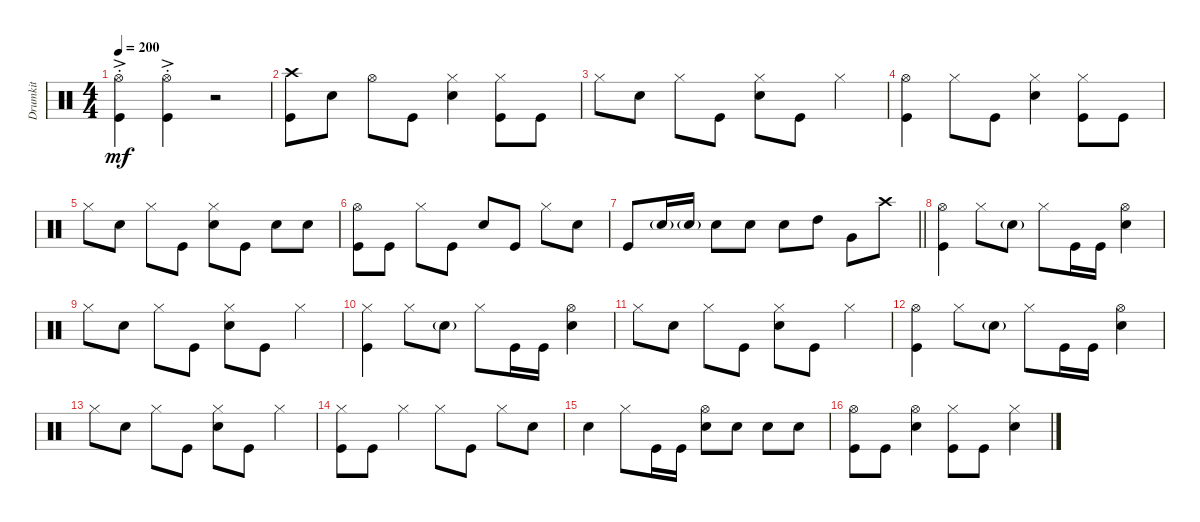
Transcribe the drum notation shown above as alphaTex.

\track ("Drumkit" "Drumkit") {instrument percussion}
\staff {score}
\articulation defaults
\ts (4 4)
\tempo 200
\clef neutral
\ks c
("Hi-Hat (open)" "Kick (hit)"{ac st}).4{dy mf} ("Hi-Hat (open)"{ac st} "Kick (hit)").4 r.2 |
("Crash high (hit)" "Kick (hit)").8 "Snare (hit) 2".8 "Hi-Hat (open)".8 "Kick (hit)".8 ("Snare (hit) 2" "Hi-Hat (closed)").4 ("Kick (hit)" "Hi-Hat (closed)").8 "Kick (hit)".8 |
"Hi-Hat (closed)".8 "Snare (hit) 2".8 "Hi-Hat (closed)".8 "Kick (hit)".8 ("Hi-Hat (closed)" "Snare (hit) 2").8 "Kick (hit)".8 "Hi-Hat (closed)".4 |
("Hi-Hat (open)" "Kick (hit)").4 "Hi-Hat (closed)".8 "Kick (hit)".8 ("Hi-Hat (closed)" "Snare (hit) 2").4 ("Hi-Hat (closed)" "Kick (hit)").8 "Kick (hit)".8 |
"Hi-Hat (closed)".8 "Snare (hit) 2".8 "Hi-Hat (closed)".8 "Kick (hit)".8 ("Hi-Hat (closed)" "Snare (hit) 2").8 "Kick (hit)".8 "Snare (hit) 2".8 "Snare (hit) 2".8 |
("Hi-Hat (open)" "Kick (hit)").8 "Kick (hit)".8 "Hi-Hat (closed)".8 "Kick (hit)".8 "Snare (hit) 2".8 "Kick (hit)".8 "Hi-Hat (closed)".8 "Snare (hit) 2".8 |
\barLineRight lightlight "Kick (hit)".8 "Snare (hit) 2"{g}.16 "Snare (hit) 2"{g}.16 "Snare (hit) 2".8 "Snare (hit) 2".8 "Snare (hit) 2".8 "High Tom (hit)".8 "Very Low Tom (hit)".8 "Crash high (hit)".8
|
("Hi-Hat (open)" "Kick (hit)").4 "Hi-Hat (closed)".8 "Snare (hit) 2"{g}.8 "Hi-Hat (closed)".8 "Kick (hit)".16 "Kick (hit)".16 ("Hi-Hat (open)" "Snare (hit) 2").4 |
"Hi-Hat (closed)".8 "Snare (hit) 2".8 "Hi-Hat (closed)".8 "Kick (hit)".8 ("Hi-Hat (closed)" "Snare (hit) 2").8 "Kick (hit)".8 "Hi-Hat (closed)".4 |
("Hi-Hat (closed)" "Kick (hit)").4 "Hi-Hat (closed)".8 "Snare (hit) 2"{g}.8 "Hi-Hat (closed)".8 "Kick (hit)".16 "Kick (hit)".16 ("Hi-Hat (open)" "Snare (hit) 2").4 |
"Hi-Hat (closed)".8 "Snare (hit) 2".8 "Hi-Hat (closed)".8 "Kick (hit)".8 ("Hi-Hat (closed)" "Snare (hit) 2").8 "Kick (hit)".8 "Hi-Hat (closed)".4 |
("Hi-Hat (open)" "Kick (hit)").4 "Hi-Hat (closed)".8 "Snare (hit) 2"{g}.8 "Hi-Hat (closed)".8 "Kick (hit)".16 "Kick (hit)".16 ("Hi-Hat (open)" "Snare (hit) 2").4 |
"Hi-Hat (closed)".8 "Snare (hit) 2".8 "Hi-Hat (closed)".8 "Kick (hit)".8 ("Hi-Hat (closed)" "Snare (hit) 2").8 "Kick (hit)".8 "Hi-Hat (closed)".4 |
("Hi-Hat (closed)" "Kick (hit)").8 "Kick (hit)".8 "Hi-Hat (closed)".4 "Hi-Hat (closed)".8 "Kick (hit)".8 "Hi-Hat (closed)".8 "Snare (hit) 2".8 |
"Snare (hit) 2".4 "Hi-Hat (closed)".8 "Kick (hit)".16 "Kick (hit)".16 ("Snare (hit) 2" "Hi-Hat (open)").8 "Snare (hit) 2".8 "Snare (hit) 2".8 "Snare (hit) 2".8 |
("Hi-Hat (open)" "Kick (hit)").8 "Kick (hit)".8 ("Hi-Hat (open)" "Snare (hit) 2").4 ("Hi-Hat (closed)" "Kick (hit)").8 "Kick (hit)".8 ("Hi-Hat (closed)" "Snare (hit) 2").4
